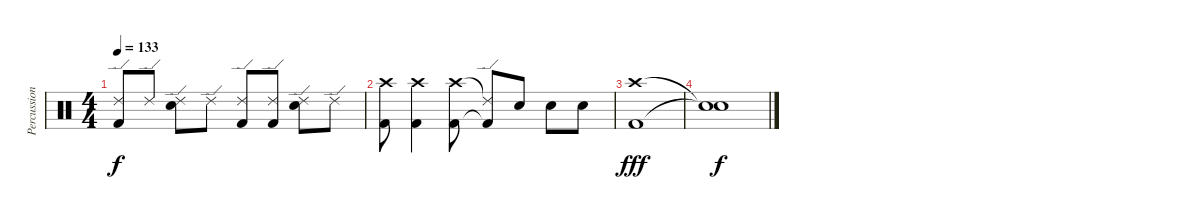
\track ("Percussion" "Percussion") {instrument percussion}
\staff {score}
\articulation defaults
\ts (4 4)
\tempo 133
\clef neutral
\ks c
("Ride (edge) 2" "Kick (hit) 2").8{dy f} "Ride (edge) 2".8 ("Ride (edge) 2" "Snare (hit) 2").8 "Ride (edge) 2".8 ("Ride (edge) 2" "Kick (hit) 2").8 ("Ride (edge) 2" "Kick (hit) 2").8 ("Ride (edge) 2" "Snare (hit) 2").8 "Ride (edge) 2".8 |
("Crash high (hit)" "Kick (hit) 2").8 ("Crash high (hit)" "Kick (hit) 2").4 ("Crash high (hit)" "Kick (hit) 2").8 ("Ride (edge) 2"{t} "Kick (hit) 2"{t}).8 "Electric Snare (hit)".8 "Electric Snare (hit)".8 "Electric Snare (hit)".8 |
("Crash high (hit)" "Kick (hit) 2").1{dy fff} |
("Snare (hit)"{t} "Snare (hit)"{t}).1{dy f}
